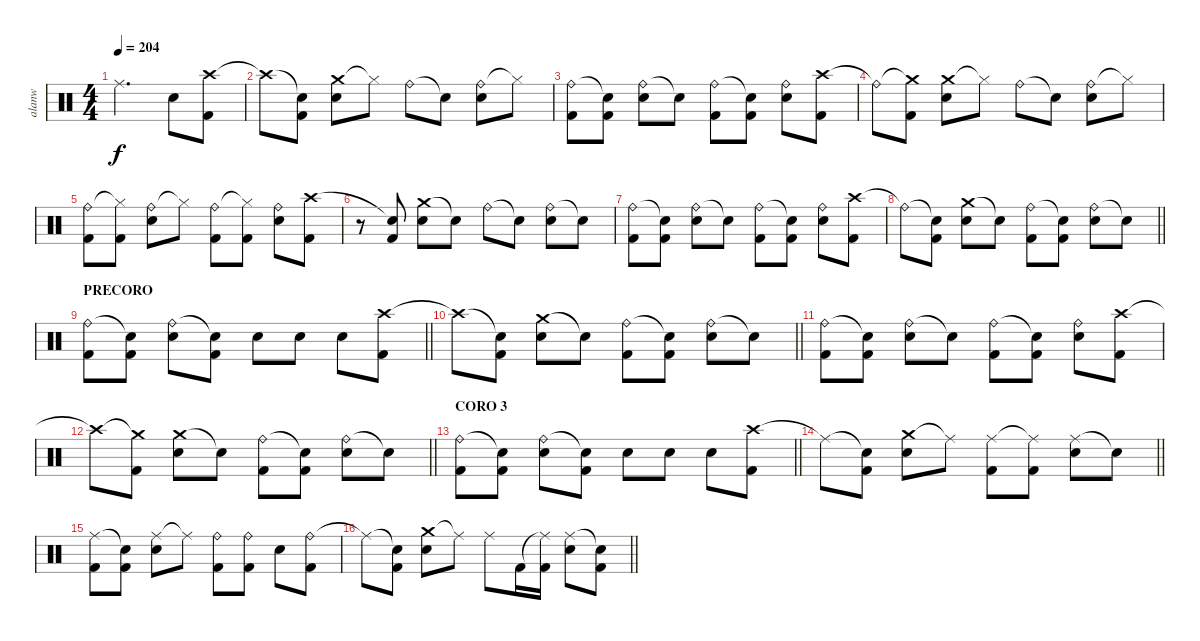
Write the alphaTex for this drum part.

\track ("alanw" "alanw") {instrument percussion}
\staff {score}
\articulation defaults
\ts (4 4)
\section ("" "")
\tempo 204
\clef neutral
\ks c "Ride (middle)"{t}.2{d dy f} "Electric Snare (hit)".8
("Crash high (hit)" "Kick (hit) 2").8 |
"Crash high (hit)"{t}.8 ("Snare (hit)"{t} "Kick (hit) 2").8 ("Crash medium (hit)" "Electric Snare (hit)").8 "Hi-Hat (closed)"{t}.8 "Ride (bell)".8 "Snare (hit)"{t}.8 ("Ride (bell)" "Electric Snare (hit)").8 "Hi-Hat (closed)"{t}.8 |
("Ride (bell)" "Kick (hit) 2").8 ("Snare (hit)"{t} "Kick (hit) 2").8 ("Ride (bell)" "Electric Snare (hit)").8 "Snare (hit)"{t}.8 ("Ride (bell)" "Kick (hit) 2").8 ("Snare (hit)"{t} "Kick (hit) 2").8 ("Ride (bell)" "Electric Snare (hit)").8 ("Crash high (hit)" "Kick (hit) 2").8 |
"Ride (bell)"{t}.8 ("Crash medium (hit)"{t} "Kick (hit) 2").8 ("Crash medium (hit)" "Electric Snare (hit)").8 "Hi-Hat (closed)"{t}.8 "Ride (bell)".8 "Snare (hit)"{t}.8 ("Ride (bell)" "Electric Snare (hit)").8 "Hi-Hat (closed)"{t}.8 |
("Ride (bell)" "Kick (hit) 2").8 ("Hi-Hat (closed)"{t} "Kick (hit) 2").8 ("Ride (bell)" "Electric Snare (hit)").8 "Hi-Hat (closed)"{t}.8 ("Ride (bell)" "Kick (hit) 2").8 ("Hi-Hat (closed)"{t} "Kick (hit) 2").8 ("Ride (bell)" "Electric Snare (hit)").8 ("Crash high (hit)" "Kick (hit) 2").8 |
r.8 ("Snare (hit)"{t} "Kick (hit) 2").8 ("Crash medium (hit)" "Electric Snare (hit)").8 "Snare (hit)"{t}.8 "Ride (bell)".8 "Snare (hit)"{t}.8 ("Ride (bell)" "Electric Snare (hit)").8 "Snare (hit)"{t}.8 |
("Ride (bell)" "Kick (hit) 2").8 ("Snare (hit)"{t} "Kick (hit) 2").8 ("Ride (bell)" "Electric Snare (hit)").8 "Snare (hit)"{t}.8 ("Ride (bell)" "Kick (hit) 2").8 ("Snare (hit)"{t} "Kick (hit) 2").8 ("Ride (bell)" "Electric Snare (hit)").8 ("Crash high (hit)" "Kick (hit) 2").8 |
\barLineRight lightlight "Ride (bell)"{t}.8
("Snare (hit)"{t} "Kick (hit) 2").8 ("Crash medium (hit)" "Electric Snare (hit)").8 "Snare (hit)"{t}.8 ("Ride (bell)" "Kick (hit) 2").8 ("Snare (hit)"{t} "Kick (hit) 2").8 ("Ride (bell)" "Electric Snare (hit)").8 "Snare (hit)"{t}.8 |
\section ("" "PRECORO")
\barLineRight lightlight
("Ride (bell)" "Kick (hit) 2").8 ("Snare (hit)"{t} "Kick (hit) 2").8 ("Ride (bell)" "Electric Snare (hit)").8 ("Snare (hit)"{t} "Kick (hit) 2").8 "Electric Snare (hit)".8 "Electric Snare (hit)".8 "Electric Snare (hit)".8 ("Crash high (hit)" "Kick (hit) 2").8 |
\barLineRight lightlight "Crash high (hit)"{t}.8
("Snare (hit)"{t} "Kick (hit) 2").8 ("Crash medium (hit)" "Electric Snare (hit)").8 "Snare (hit)"{t}.8 ("Ride (bell)" "Kick (hit) 2").8 ("Snare (hit)"{t} "Kick (hit) 2").8 ("Ride (bell)" "Electric Snare (hit)").8 "Snare (hit)"{t}.8 |
("Ride (bell)" "Kick (hit) 2").8 ("Snare (hit)"{t} "Kick (hit) 2").8 ("Ride (bell)" "Electric Snare (hit)").8 "Snare (hit)"{t}.8 ("Ride (bell)" "Kick (hit) 2").8 ("Snare (hit)"{t} "Kick (hit) 2").8 ("Ride (bell)" "Electric Snare (hit)").8 ("Crash high (hit)" "Kick (hit) 2").8 |
\barLineRight lightlight "Crash high (hit)"{t}.8
("Crash medium (hit)"{t} "Kick (hit) 2").8 ("Crash medium (hit)" "Electric Snare (hit)").8 "Snare (hit)"{t}.8 ("Ride (bell)" "Kick (hit) 2").8 ("Snare (hit)"{t} "Kick (hit) 2").8 ("Ride (bell)" "Electric Snare (hit)").8 "Snare (hit)"{t}.8 |
\section ("" "CORO 3")
\barLineRight lightlight
("Ride (bell)" "Kick (hit) 2").8 ("Snare (hit)"{t} "Kick (hit) 2").8 ("Ride (bell)" "Electric Snare (hit)").8 ("Snare (hit)"{t} "Kick (hit) 2").8 "Electric Snare (hit)".8 "Electric Snare (hit)".8 "Electric Snare (hit)".8 ("Crash high (hit)" "Kick (hit) 2").8 |
\barLineRight lightlight "Ride (middle)"{t}.8
("Snare (hit)"{t} "Kick (hit) 2").8 ("Crash medium (hit)" "Electric Snare (hit)").8 "Ride (middle)"{t}.8 ("Ride (middle)" "Kick (hit) 2").8 ("Ride (middle)"{t} "Kick (hit) 2").8 ("Ride (middle)" "Electric Snare (hit)").8 "Snare (hit)"{t}.8 |
("Ride (middle)" "Kick (hit) 2").8 ("Snare (hit)"{t} "Kick (hit) 2").8 ("Ride (middle)" "Electric Snare (hit)").8 "Ride (middle)"{t}.8 ("Ride (bell)" "Kick (hit) 2").8 ("Ride (bell)" "Kick (hit) 2").8 "Electric Snare (hit)".8 ("Ride (bell)" "Kick (hit) 2").8 |
\barLineRight lightlight "Ride (middle)"{t}.8
("Snare (hit)"{t} "Kick (hit) 2").8 ("Crash medium (hit)" "Electric Snare (hit)").8 "Ride (middle)"{t}.8 "Ride (middle)".8 "Kick (hit) 2".16 ("Ride (middle)"{t} "Kick (hit) 2").16 ("Ride (middle)" "Electric Snare (hit)").8 ("Snare (hit)"{t} "Kick (hit) 2").8
